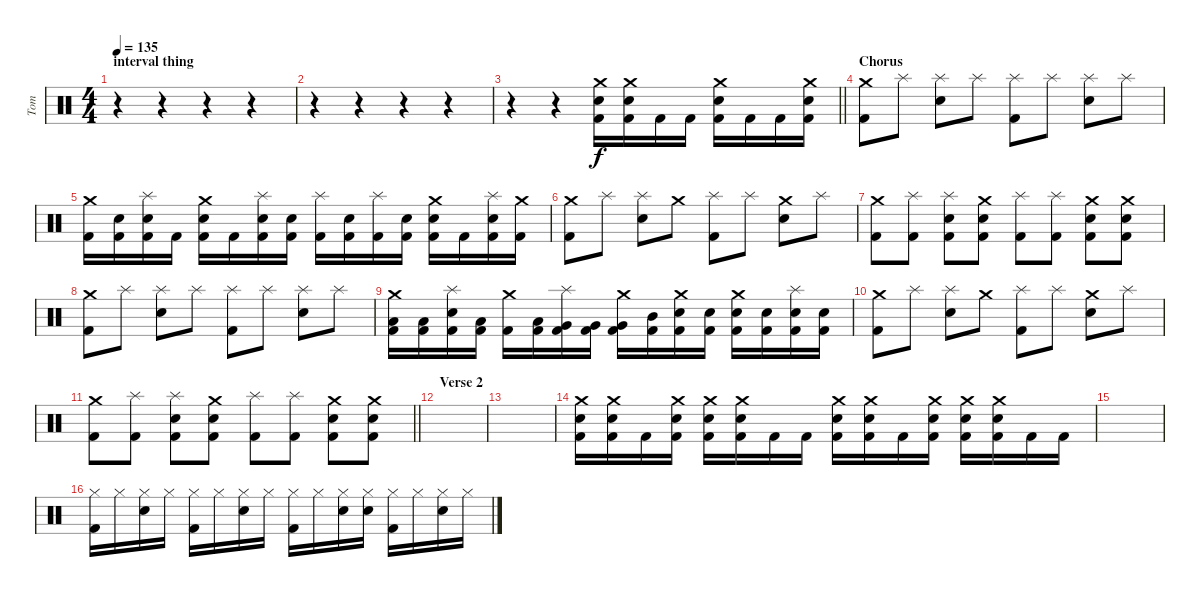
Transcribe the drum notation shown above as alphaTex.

\track ("Tom" "Tom") {instrument percussion}
\staff {score}
\articulation defaults
\ts (4 4)
\section ("" "interval thing")
\tempo 135
\clef neutral
\ks c
r.4{dy f} r.4 r.4 r.4 |
r.4 r.4 r.4 r.4 |
\barLineRight lightlight
r.4 r.4 ("Crash medium (hit)" "Electric Snare (hit)" "Kick (hit) 2").16 ("Crash medium (hit)" "Electric Snare (hit)" "Kick (hit) 2").16 "Kick (hit) 2".16 "Kick (hit) 2".16 ("Crash medium (hit)" "Electric Snare (hit)" "Kick (hit) 2").16 "Kick (hit) 2".16 "Kick (hit) 2".16 ("Crash medium (hit)" "Electric Snare (hit)" "Kick (hit) 2").16 |
\section ("" "Chorus")
("Crash medium (hit)" "Kick (hit) 2").8 "Splash (hit)".8 ("Splash (hit)" "Electric Snare (hit)").8 "Splash (hit)".8 ("Splash (hit)" "Kick (hit) 2").8 "Splash (hit)".8 ("Splash (hit)" "Electric Snare (hit)").8 "Splash (hit)".8 |
("Crash medium (hit)" "Kick (hit) 2").16 ("Electric Snare (hit)" "Kick (hit) 2").16 ("Splash (hit)" "Electric Snare (hit)" "Kick (hit) 2").16 "Kick (hit) 2".16 ("Crash medium (hit)" "Electric Snare (hit)" "Kick (hit) 2").16 "Kick (hit) 2".16 ("Splash (hit)" "Electric Snare (hit)" "Kick (hit) 2").16 ("Electric Snare (hit)" "Kick (hit) 2").16 ("Splash (hit)" "Kick (hit) 2").16 ("Electric Snare (hit)" "Kick (hit) 2").16 ("Splash (hit)" "Kick (hit) 2").16 ("Electric Snare (hit)" "Kick (hit) 2").16 ("Crash medium (hit)" "Electric Snare (hit)" "Kick (hit) 2").16 "Kick (hit) 2".16 ("Splash (hit)" "Electric Snare (hit)" "Kick (hit) 2").16 ("Crash medium (hit)" "Kick (hit) 2").16 |
("Crash medium (hit)" "Kick (hit) 2").8 "Splash (hit)".8 ("Splash (hit)" "Electric Snare (hit)").8 "Crash medium (hit)".8 ("Splash (hit)" "Kick (hit) 2").8 "Splash (hit)".8 ("Crash medium (hit)" "Electric Snare (hit)").8 "Splash (hit)".8 |
("Crash medium (hit)" "Kick (hit) 2").8 ("Splash (hit)" "Kick (hit) 2").8 ("Splash (hit)" "Electric Snare (hit)" "Kick (hit) 2").8 ("Crash medium (hit)" "Electric Snare (hit)" "Kick (hit) 2").8 ("Splash (hit)" "Kick (hit) 2").8 ("Splash (hit)" "Kick (hit) 2").8 ("Crash medium (hit)" "Electric Snare (hit)" "Kick (hit) 2").8 ("Crash medium (hit)" "Electric Snare (hit)" "Kick (hit) 2").8 |
("Crash medium (hit)" "Kick (hit) 2").8 "Splash (hit)".8 ("Splash (hit)" "Electric Snare (hit)").8 "Splash (hit)".8 ("Splash (hit)" "Kick (hit) 2").8 "Splash (hit)".8 ("Splash (hit)" "Electric Snare (hit)").8 "Splash (hit)".8 |
("Crash medium (hit)" "Low Floor Tom (hit)" "Kick (hit) 2").16 ("Low Floor Tom (hit)" "Kick (hit) 2").16 ("Splash (hit)" "Electric Snare (hit)" "Kick (hit) 2").16 ("Low Floor Tom (hit)" "Kick (hit) 2").16 ("Crash medium (hit)" "Kick (hit) 2").16 ("Low Floor Tom (hit)" "Kick (hit) 2").16 ("Splash (hit)" "Very Low Tom (hit)" "Kick (hit) 2").16 ("Very Low Tom (hit)" "Kick (hit) 2").16 ("Crash medium (hit)" "Very Low Tom (hit)" "Kick (hit) 2").16 ("Mid Tom (hit)" "Kick (hit) 2").16 ("Crash medium (hit)" "Electric Snare (hit)" "Kick (hit) 2").16 ("Electric Snare (hit)" "Kick (hit) 2").16 ("Crash medium (hit)" "Electric Snare (hit)" "Kick (hit) 2").16 ("Electric Snare (hit)" "Kick (hit) 2").16 ("Splash (hit)" "Electric Snare (hit)" "Kick (hit) 2").16 ("Electric Snare (hit)" "Kick (hit) 2").16 |
("Crash medium (hit)" "Kick (hit) 2").8 "Splash (hit)".8 ("Splash (hit)" "Electric Snare (hit)").8 "Crash medium (hit)".8 ("Splash (hit)" "Kick (hit) 2").8 "Splash (hit)".8 ("Crash medium (hit)" "Electric Snare (hit)").8 "Splash (hit)".8 |
\barLineRight lightlight
("Crash medium (hit)" "Kick (hit) 2").8 ("Splash (hit)" "Kick (hit) 2").8 ("Splash (hit)" "Electric Snare (hit)" "Kick (hit) 2").8 ("Crash medium (hit)" "Electric Snare (hit)" "Kick (hit) 2").8 ("Splash (hit)" "Kick (hit) 2").8 ("Splash (hit)" "Kick (hit) 2").8 ("Crash medium (hit)" "Electric Snare (hit)" "Kick (hit) 2").8 ("Crash medium (hit)" "Electric Snare (hit)" "Kick (hit) 2").8 |
\section ("" "Verse 2")
|
|
("Crash medium (hit)" "Electric Snare (hit)" "Kick (hit) 2").16 ("Crash medium (hit)" "Electric Snare (hit)" "Kick (hit) 2").16 "Kick (hit) 2".16 ("Crash medium (hit)" "Electric Snare (hit)" "Kick (hit) 2").16 ("Crash medium (hit)" "Electric Snare (hit)" "Kick (hit) 2").16 ("Crash medium (hit)" "Electric Snare (hit)" "Kick (hit) 2").16 "Kick (hit) 2".16 "Kick (hit) 2".16 ("Crash medium (hit)" "Electric Snare (hit)" "Kick (hit) 2").16 ("Crash medium (hit)" "Electric Snare (hit)" "Kick (hit) 2").16 "Kick (hit) 2".16 ("Crash medium (hit)" "Electric Snare (hit)" "Kick (hit) 2").16 ("Crash medium (hit)" "Electric Snare (hit)" "Kick (hit) 2").16 ("Crash medium (hit)" "Electric Snare (hit)" "Kick (hit) 2").16 "Kick (hit) 2".16 "Kick (hit) 2".16 |
|
("Hi-Hat (closed)" "Kick (hit) 2").16 "Hi-Hat (closed)".16 ("Hi-Hat (closed)" "Electric Snare (hit)").16 "Hi-Hat (closed)".16 ("Hi-Hat (closed)" "Kick (hit) 2").16 "Hi-Hat (closed)".16 ("Hi-Hat (closed)" "Electric Snare (hit)").16 "Hi-Hat (closed)".16 ("Hi-Hat (closed)" "Kick (hit) 2").16 "Hi-Hat (closed)".16 ("Hi-Hat (closed)" "Electric Snare (hit)").16 ("Hi-Hat (closed)" "Electric Snare (hit)").16 ("Hi-Hat (closed)" "Kick (hit) 2").16 "Hi-Hat (closed)".16 ("Hi-Hat (closed)" "Electric Snare (hit)").16 "Hi-Hat (closed)".16
